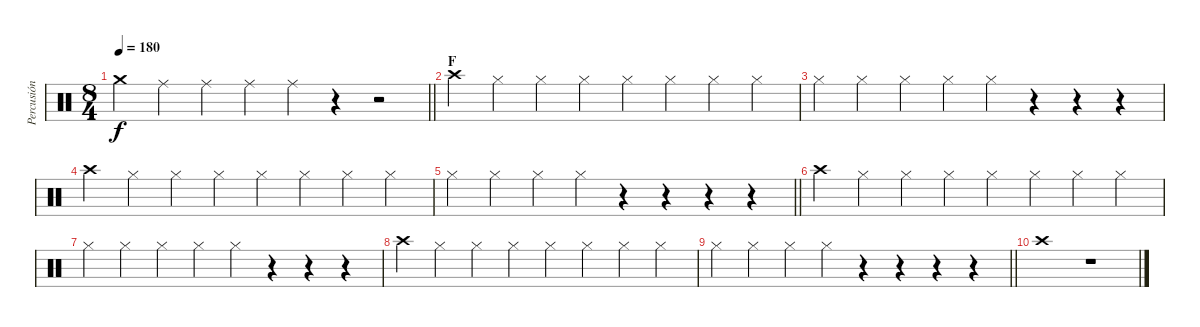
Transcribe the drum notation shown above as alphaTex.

\track ("Percusión" "Percusión") {instrument percussion}
\staff {score}
\articulation defaults
\ts (8 4)
\tempo 180
\clef neutral
\barLineRight lightlight
\ks c "Crash medium (hit)".4{dy f} "Ride (middle)".4 "Ride (middle)".4 "Ride (middle)".4 "Ride (middle)".4
r.4 r.2 |
\section ("" "F")
"Crash high (hit)".4 "Hi-Hat (closed)".4 "Hi-Hat (closed)".4 "Hi-Hat (closed)".4 "Hi-Hat (closed)".4 "Hi-Hat (closed)".4 "Hi-Hat (closed)".4 "Hi-Hat (closed)".4 |
"Hi-Hat (closed)".4 "Hi-Hat (closed)".4 "Hi-Hat (closed)".4 "Hi-Hat (closed)".4 "Hi-Hat (closed)".4 r.4 r.4 r.4 |
"Crash high (hit)".4 "Hi-Hat (closed)".4 "Hi-Hat (closed)".4 "Hi-Hat (closed)".4 "Hi-Hat (closed)".4 "Hi-Hat (closed)".4 "Hi-Hat (closed)".4 "Hi-Hat (closed)".4 |
\barLineRight lightlight "Hi-Hat (closed)".4 "Hi-Hat (closed)".4 "Hi-Hat (closed)".4 "Hi-Hat (closed)".4
r.4 r.4 r.4 r.4 |
"Crash high (hit)".4 "Hi-Hat (closed)".4 "Hi-Hat (closed)".4 "Hi-Hat (closed)".4 "Hi-Hat (closed)".4 "Hi-Hat (closed)".4 "Hi-Hat (closed)".4 "Hi-Hat (closed)".4 |
"Hi-Hat (closed)".4 "Hi-Hat (closed)".4 "Hi-Hat (closed)".4 "Hi-Hat (closed)".4 "Hi-Hat (closed)".4 r.4 r.4 r.4 |
"Crash high (hit)".4 "Hi-Hat (closed)".4 "Hi-Hat (closed)".4 "Hi-Hat (closed)".4 "Hi-Hat (closed)".4 "Hi-Hat (closed)".4 "Hi-Hat (closed)".4 "Hi-Hat (closed)".4 |
\barLineRight lightlight "Hi-Hat (closed)".4 "Hi-Hat (closed)".4 "Hi-Hat (closed)".4 "Hi-Hat (closed)".4
r.4 r.4 r.4 r.4 |
"Crash high (hit)".1 r.1
